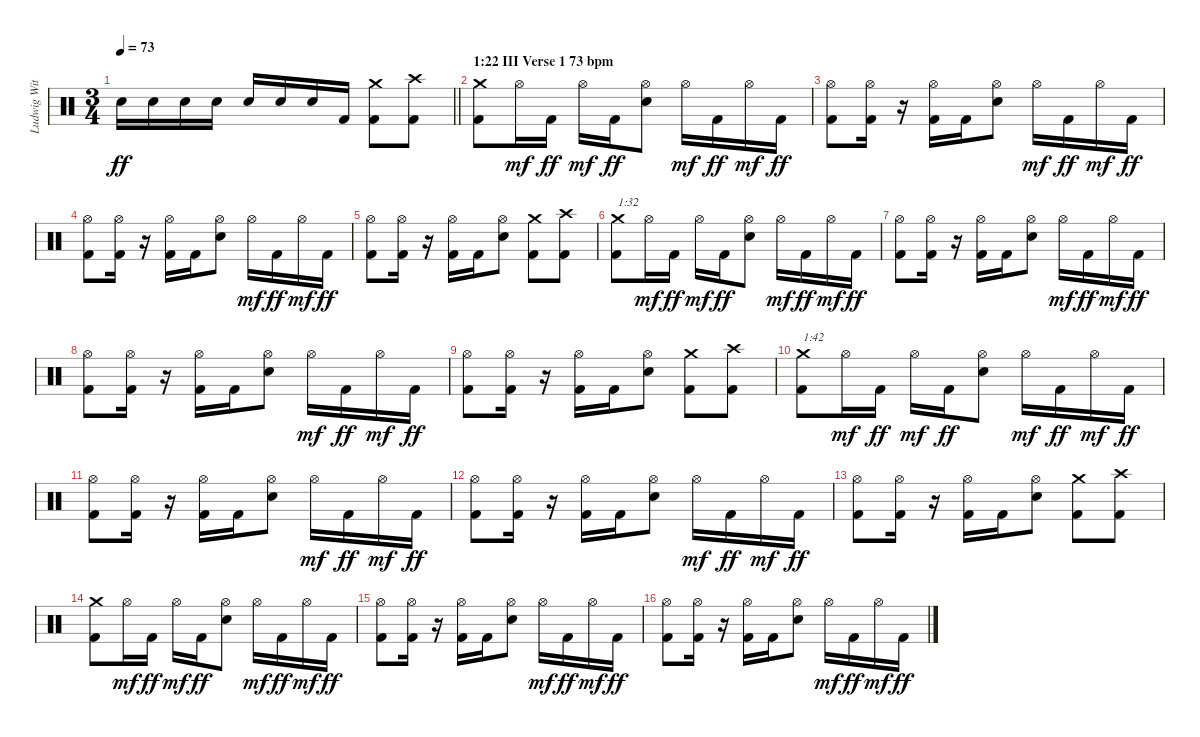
\track ("Ludwig Witt (Drums)" "Ludwig Wit") {instrument percussion}
\staff
\articulation defaults
\ts (3 4)
\tempo 73
\clef neutral
\barLineRight lightlight
\ks c "Electric Snare (hit)".16{dy ff} "Electric Snare (hit)".16 "Electric Snare (hit)".16 "Electric Snare (hit)".16 "Electric Snare (hit)".16 "Electric Snare (hit)".16 "Electric Snare (hit)".16 "Kick (hit) 2".16
("Crash medium (hit)" "Kick (hit) 2").8 ("Crash high (hit)" "Kick (hit) 2").8 |
\section ("" "1:22 III Verse 1 73 bpm")
("Crash medium (hit)" "Kick (hit) 2").8 "Hi-Hat (open)".16{dy mf} "Kick (hit) 2".16{dy ff} "Hi-Hat (open)".16{dy mf} "Kick (hit) 2".16{dy ff} ("Hi-Hat (open)" "Electric Snare (hit)").8 "Hi-Hat (open)".16{dy mf} "Kick (hit) 2".16{dy ff} "Hi-Hat (open)".16{dy mf} "Kick (hit) 2".16{dy ff} |
("Hi-Hat (open)" "Kick (hit) 2").8 ("Hi-Hat (open)" "Kick (hit) 2").16 r.16 ("Hi-Hat (open)" "Kick (hit) 2").16 "Kick (hit) 2".16 ("Hi-Hat (open)" "Electric Snare (hit)").8 "Hi-Hat (open)".16{dy mf} "Kick (hit) 2".16{dy ff} "Hi-Hat (open)".16{dy mf} "Kick (hit) 2".16{dy ff} |
("Hi-Hat (open)" "Kick (hit) 2").8 ("Hi-Hat (open)" "Kick (hit) 2").16 r.16 ("Hi-Hat (open)" "Kick (hit) 2").16 "Kick (hit) 2".16 ("Hi-Hat (open)" "Electric Snare (hit)").8 "Hi-Hat (open)".16{dy mf} "Kick (hit) 2".16{dy ff} "Hi-Hat (open)".16{dy mf} "Kick (hit) 2".16{dy ff} |
("Hi-Hat (open)" "Kick (hit) 2").8 ("Hi-Hat (open)" "Kick (hit) 2").16 r.16 ("Hi-Hat (open)" "Kick (hit) 2").16 "Kick (hit) 2".16 ("Hi-Hat (open)" "Electric Snare (hit)").8 ("Crash medium (hit)" "Kick (hit) 2").8 ("Crash high (hit)" "Kick (hit) 2").8 |
("Crash medium (hit)" "Kick (hit) 2").8{txt "1:32"} "Hi-Hat (open)".16{dy mf} "Kick (hit) 2".16{dy ff} "Hi-Hat (open)".16{dy mf} "Kick (hit) 2".16{dy ff} ("Hi-Hat (open)" "Electric Snare (hit)").8 "Hi-Hat (open)".16{dy mf} "Kick (hit) 2".16{dy ff} "Hi-Hat (open)".16{dy mf} "Kick (hit) 2".16{dy ff} |
("Hi-Hat (open)" "Kick (hit) 2").8 ("Hi-Hat (open)" "Kick (hit) 2").16 r.16 ("Hi-Hat (open)" "Kick (hit) 2").16 "Kick (hit) 2".16 ("Hi-Hat (open)" "Electric Snare (hit)").8 "Hi-Hat (open)".16{dy mf} "Kick (hit) 2".16{dy ff} "Hi-Hat (open)".16{dy mf} "Kick (hit) 2".16{dy ff} |
("Hi-Hat (open)" "Kick (hit) 2").8 ("Hi-Hat (open)" "Kick (hit) 2").16 r.16 ("Hi-Hat (open)" "Kick (hit) 2").16 "Kick (hit) 2".16 ("Hi-Hat (open)" "Electric Snare (hit)").8 "Hi-Hat (open)".16{dy mf} "Kick (hit) 2".16{dy ff} "Hi-Hat (open)".16{dy mf} "Kick (hit) 2".16{dy ff} |
("Hi-Hat (open)" "Kick (hit) 2").8 ("Hi-Hat (open)" "Kick (hit) 2").16 r.16 ("Hi-Hat (open)" "Kick (hit) 2").16 "Kick (hit) 2".16 ("Hi-Hat (open)" "Electric Snare (hit)").8 ("Crash medium (hit)" "Kick (hit) 2").8 ("Crash high (hit)" "Kick (hit) 2").8 |
("Crash medium (hit)" "Kick (hit) 2").8{txt "1:42"} "Hi-Hat (open)".16{dy mf} "Kick (hit) 2".16{dy ff} "Hi-Hat (open)".16{dy mf} "Kick (hit) 2".16{dy ff} ("Hi-Hat (open)" "Electric Snare (hit)").8 "Hi-Hat (open)".16{dy mf} "Kick (hit) 2".16{dy ff} "Hi-Hat (open)".16{dy mf} "Kick (hit) 2".16{dy ff} |
("Hi-Hat (open)" "Kick (hit) 2").8 ("Hi-Hat (open)" "Kick (hit) 2").16 r.16 ("Hi-Hat (open)" "Kick (hit) 2").16 "Kick (hit) 2".16 ("Hi-Hat (open)" "Electric Snare (hit)").8 "Hi-Hat (open)".16{dy mf} "Kick (hit) 2".16{dy ff} "Hi-Hat (open)".16{dy mf} "Kick (hit) 2".16{dy ff} |
("Hi-Hat (open)" "Kick (hit) 2").8 ("Hi-Hat (open)" "Kick (hit) 2").16 r.16 ("Hi-Hat (open)" "Kick (hit) 2").16 "Kick (hit) 2".16 ("Hi-Hat (open)" "Electric Snare (hit)").8 "Hi-Hat (open)".16{dy mf} "Kick (hit) 2".16{dy ff} "Hi-Hat (open)".16{dy mf} "Kick (hit) 2".16{dy ff} |
("Hi-Hat (open)" "Kick (hit) 2").8 ("Hi-Hat (open)" "Kick (hit) 2").16 r.16 ("Hi-Hat (open)" "Kick (hit) 2").16 "Kick (hit) 2".16 ("Hi-Hat (open)" "Electric Snare (hit)").8 ("Crash medium (hit)" "Kick (hit) 2").8 ("Crash high (hit)" "Kick (hit) 2").8 |
("Crash medium (hit)" "Kick (hit) 2").8 "Hi-Hat (open)".16{dy mf} "Kick (hit) 2".16{dy ff} "Hi-Hat (open)".16{dy mf} "Kick (hit) 2".16{dy ff} ("Hi-Hat (open)" "Electric Snare (hit)").8 "Hi-Hat (open)".16{dy mf} "Kick (hit) 2".16{dy ff} "Hi-Hat (open)".16{dy mf} "Kick (hit) 2".16{dy ff} |
("Hi-Hat (open)" "Kick (hit) 2").8 ("Hi-Hat (open)" "Kick (hit) 2").16 r.16 ("Hi-Hat (open)" "Kick (hit) 2").16 "Kick (hit) 2".16 ("Hi-Hat (open)" "Electric Snare (hit)").8 "Hi-Hat (open)".16{dy mf} "Kick (hit) 2".16{dy ff} "Hi-Hat (open)".16{dy mf} "Kick (hit) 2".16{dy ff} |
("Hi-Hat (open)" "Kick (hit) 2").8 ("Hi-Hat (open)" "Kick (hit) 2").16 r.16 ("Hi-Hat (open)" "Kick (hit) 2").16 "Kick (hit) 2".16 ("Hi-Hat (open)" "Electric Snare (hit)").8 "Hi-Hat (open)".16{dy mf} "Kick (hit) 2".16{dy ff} "Hi-Hat (open)".16{dy mf} "Kick (hit) 2".16{dy ff}
